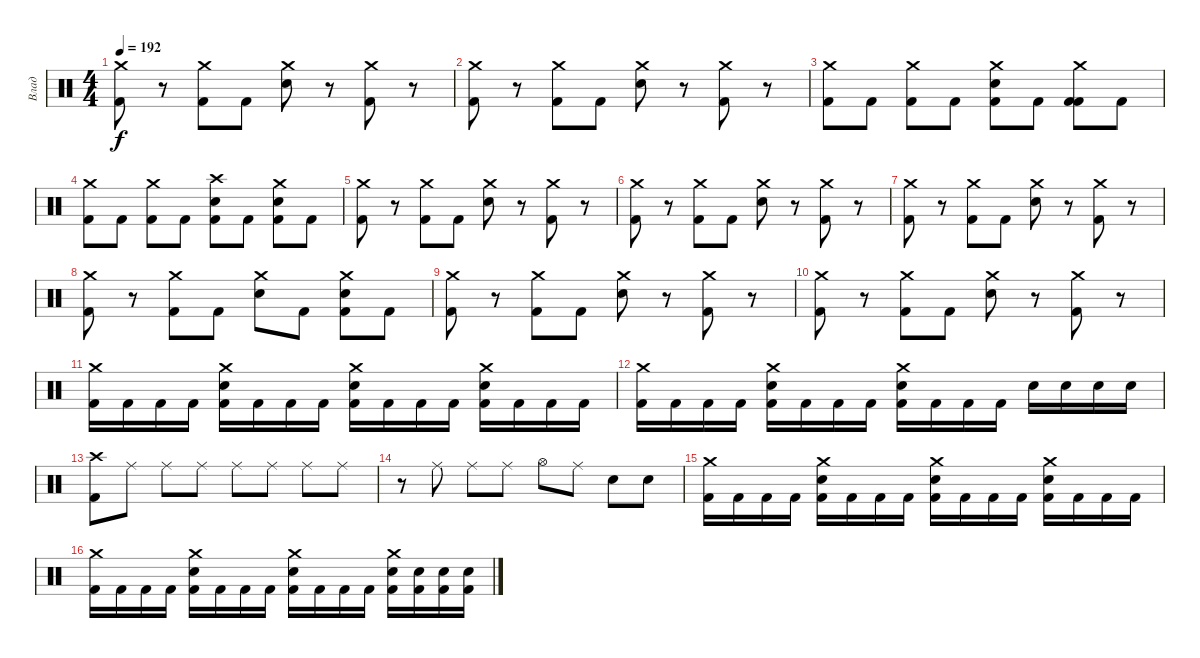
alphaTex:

\track ("Влад" "Влад") {instrument percussion}
\staff {score}
\articulation defaults
\ts (4 4)
\tempo 192
\clef neutral
\ks c
("Crash medium (hit)" "Kick (hit) 2").8{dy f} r.8 ("Crash medium (hit)" "Kick (hit) 2").8 "Kick (hit) 2".8 ("Crash medium (hit)" "Snare (hit) 2").8 r.8 ("Crash medium (hit)" "Kick (hit) 2").8 r.8 |
("Crash medium (hit)" "Kick (hit) 2").8 r.8 ("Crash medium (hit)" "Kick (hit) 2").8 "Kick (hit) 2".8 ("Crash medium (hit)" "Snare (hit) 2").8 r.8 ("Crash medium (hit)" "Kick (hit) 2").8 r.8 |
("Crash medium (hit)" "Kick (hit) 2").8 "Kick (hit) 2".8 ("Crash medium (hit)" "Kick (hit) 2").8 "Kick (hit) 2".8 ("Crash medium (hit)" "Kick (hit) 2" "Snare (hit) 2").8 "Kick (hit) 2".8 ("Crash medium (hit)" "Kick (hit) 2" "Kick (hit) 2").8 "Kick (hit) 2".8 |
("Crash medium (hit)" "Kick (hit) 2").8 "Kick (hit) 2".8 ("Crash medium (hit)" "Kick (hit) 2").8 "Kick (hit) 2".8 ("Crash high (hit)" "Kick (hit) 2"{tr (36 16)} "Snare (hit) 2").8 "Kick (hit) 2"{tr (36 16)}.8 ("Crash medium (hit)" "Kick (hit) 2"{tr (36 16)} "Snare (hit) 2").8 "Kick (hit) 2"{tr (36 16)}.8 |
("Crash medium (hit)" "Kick (hit) 2").8 r.8 ("Crash medium (hit)" "Kick (hit) 2").8 "Kick (hit) 2".8 ("Crash medium (hit)" "Snare (hit) 2").8 r.8 ("Crash medium (hit)" "Kick (hit) 2").8 r.8 |
("Crash medium (hit)" "Kick (hit) 2").8 r.8 ("Crash medium (hit)" "Kick (hit) 2").8 "Kick (hit) 2".8 ("Crash medium (hit)" "Snare (hit) 2").8 r.8 ("Crash medium (hit)" "Kick (hit) 2").8 r.8 |
("Crash medium (hit)" "Kick (hit) 2").8 r.8 ("Crash medium (hit)" "Kick (hit) 2").8 "Kick (hit) 2".8 ("Crash medium (hit)" "Snare (hit) 2").8 r.8 ("Crash medium (hit)" "Kick (hit) 2").8 r.8 |
("Crash medium (hit)" "Kick (hit) 2").8 r.8 ("Crash medium (hit)" "Kick (hit) 2").8 "Kick (hit) 2".8 ("Crash medium (hit)" "Snare (hit) 2").8 "Kick (hit) 2".8 ("Crash medium (hit)" "Kick (hit) 2" "Snare (hit) 2").8 "Kick (hit) 2".8 |
("Crash medium (hit)" "Kick (hit) 2").8 r.8 ("Crash medium (hit)" "Kick (hit) 2").8 "Kick (hit) 2".8 ("Crash medium (hit)" "Snare (hit) 2").8 r.8 ("Crash medium (hit)" "Kick (hit) 2").8 r.8 |
("Crash medium (hit)" "Kick (hit) 2").8 r.8 ("Crash medium (hit)" "Kick (hit) 2").8 "Kick (hit) 2".8 ("Crash medium (hit)" "Snare (hit) 2").8 r.8 ("Crash medium (hit)" "Kick (hit) 2").8 r.8 |
("Crash medium (hit)" "Kick (hit) 2").16 "Kick (hit) 2".16 "Kick (hit) 2".16 "Kick (hit) 2".16 ("Crash medium (hit)" "Kick (hit) 2" "Snare (hit) 2").16 "Kick (hit) 2".16 "Kick (hit) 2".16 "Kick (hit) 2".16 ("Crash medium (hit)" "Kick (hit) 2" "Snare (hit) 2").16 "Kick (hit) 2".16 "Kick (hit) 2".16 "Kick (hit) 2".16 ("Crash medium (hit)" "Kick (hit) 2" "Snare (hit) 2").16 "Kick (hit) 2".16 "Kick (hit) 2".16 "Kick (hit) 2".16 |
("Crash medium (hit)" "Kick (hit) 2").16 "Kick (hit) 2".16 "Kick (hit) 2".16 "Kick (hit) 2".16 ("Crash medium (hit)" "Kick (hit) 2" "Snare (hit) 2").16 "Kick (hit) 2".16 "Kick (hit) 2".16 "Kick (hit) 2".16 ("Crash medium (hit)" "Kick (hit) 2" "Snare (hit) 2").16 "Kick (hit) 2".16 "Kick (hit) 2".16 "Kick (hit) 2".16 "Snare (hit) 2".16 "Snare (hit) 2".16 "Snare (hit) 2".16 "Snare (hit) 2".16 |
("Crash high (hit)" "Kick (hit) 2").8 "Ride (middle)".8 "Ride (middle)".8 "Ride (middle)".8 "Ride (middle)".8 "Ride (middle)".8 "Ride (middle)".8 "Ride (middle)".8 |
r.8 "Ride (middle)".8 "Ride (middle)".8 "Ride (middle)".8 "Hi-Hat (open)".8 "Ride (middle)".8 "Snare (hit) 2".8 "Snare (hit) 2".8 |
("Crash medium (hit)" "Kick (hit) 2").16 "Kick (hit) 2".16 "Kick (hit) 2".16 "Kick (hit) 2".16 ("Crash medium (hit)" "Snare (hit) 2" "Kick (hit) 2").16 "Kick (hit) 2".16 "Kick (hit) 2".16 "Kick (hit) 2".16 ("Crash medium (hit)" "Snare (hit) 2" "Kick (hit) 2").16 "Kick (hit) 2".16 "Kick (hit) 2".16 "Kick (hit) 2".16 ("Crash medium (hit)" "Snare (hit) 2" "Kick (hit) 2").16 "Kick (hit) 2".16 "Kick (hit) 2".16 "Kick (hit) 2".16 |
("Crash medium (hit)" "Kick (hit) 2").16 "Kick (hit) 2".16 "Kick (hit) 2".16 "Kick (hit) 2".16 ("Crash medium (hit)" "Snare (hit) 2" "Kick (hit) 2").16 "Kick (hit) 2".16 "Kick (hit) 2".16 "Kick (hit) 2".16 ("Crash medium (hit)" "Snare (hit) 2" "Kick (hit) 2").16 "Kick (hit) 2".16 "Kick (hit) 2".16 "Kick (hit) 2".16 ("Crash medium (hit)" "Snare (hit) 2" "Kick (hit) 2").16 ("Snare (hit) 2" "Kick (hit) 2").16 ("Snare (hit) 2" "Kick (hit) 2").16 ("Snare (hit) 2" "Kick (hit) 2").16
